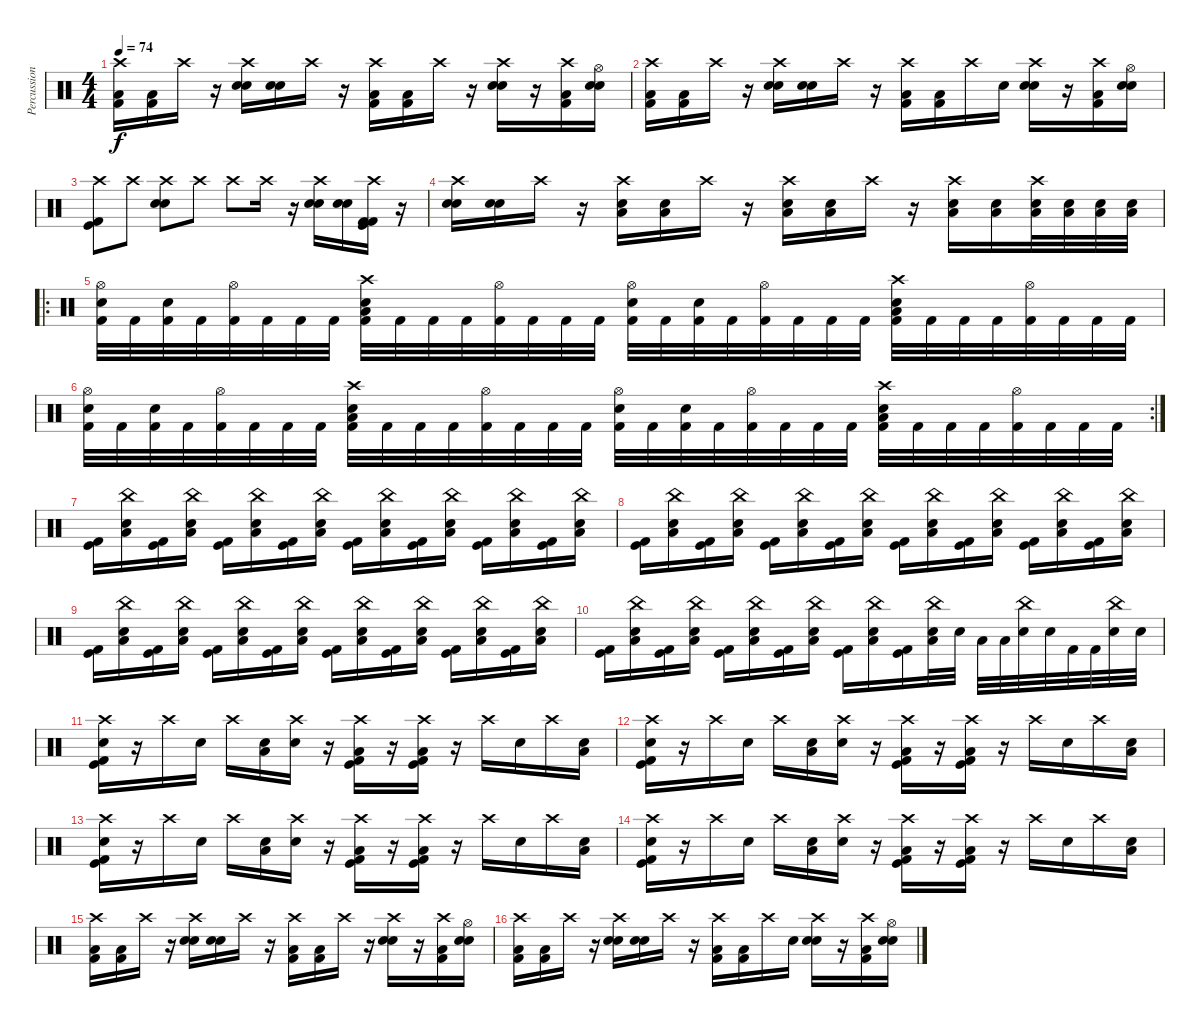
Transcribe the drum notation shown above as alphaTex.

\track ("Percussions" "Percussion") {instrument percussion}
\staff {score}
\articulation defaults
\ts (4 4)
\tempo 74
\clef neutral
\ks c
("Crash high (hit)" "Low Tom (hit)" "Kick (hit) 2").16{dy f} ("Low Tom (hit)" "Kick (hit) 2").16 "Crash high (hit)".16 r.16 ("Crash high (hit)" "Snare (hit) 2" "Electric Snare (hit)").16 ("Snare (hit) 2" "Electric Snare (hit)").16 "Crash high (hit)".16 r.16 ("Crash high (hit)" "Low Tom (hit)" "Kick (hit) 2").16 ("Low Tom (hit)" "Kick (hit) 2").16 "Crash high (hit)".16 r.16 ("Crash high (hit)" "Snare (hit) 2" "Electric Snare (hit)").16 r.16 ("Crash high (hit)" "Low Tom (hit)" "Kick (hit) 2").16 ("Hi-Hat (open)" "Electric Snare (hit)" "Snare (hit) 2").16 |
("Crash high (hit)" "Low Tom (hit)" "Kick (hit) 2").16 ("Low Tom (hit)" "Kick (hit) 2").16 "Crash high (hit)".16 r.16 ("Crash high (hit)" "Snare (hit) 2" "Electric Snare (hit)").16 ("Snare (hit) 2" "Electric Snare (hit)").16 "Crash high (hit)".16 r.16 ("Crash high (hit)" "Low Tom (hit)" "Kick (hit) 2").16 ("Low Tom (hit)" "Kick (hit) 2").16 "Crash high (hit)".16 "Electric Snare (hit)".16 ("Crash high (hit)" "Snare (hit) 2" "Electric Snare (hit)").16 r.16 ("Crash high (hit)" "Low Tom (hit)" "Kick (hit) 2").16 ("Hi-Hat (open)" "Electric Snare (hit)" "Snare (hit) 2").16 |
("Crash high (hit)" "Kick (hit)" "Kick (hit) 2").8 "Crash high (hit)".8 ("Crash high (hit)" "Snare (hit) 2" "Electric Snare (hit)").8 "Crash high (hit)".8 "Crash high (hit)".8 "Crash high (hit)".16 r.16 ("Crash high (hit)" "Electric Snare (hit)" "Snare (hit) 2").16 ("Electric Snare (hit)" "Snare (hit) 2").16 ("Crash high (hit)" "Kick (hit)" "Kick (hit) 2" "Kick (hit) 2").16 r.16 |
("Crash high (hit)" "Snare (hit) 2" "Electric Snare (hit)").16 ("Snare (hit) 2" "Electric Snare (hit)").16 "Crash high (hit)".16 r.16 ("Crash high (hit)" "Electric Snare (hit)" "Low Tom (hit)").16 ("Electric Snare (hit)" "Low Tom (hit)").16 "Crash high (hit)".16 r.16 ("Crash high (hit)" "Electric Snare (hit)" "Low Tom (hit)").16 ("Electric Snare (hit)" "Low Tom (hit)").16 "Crash high (hit)".16 r.16 ("Crash high (hit)" "Electric Snare (hit)" "Low Tom (hit)").16 ("Electric Snare (hit)" "Low Tom (hit)").16 ("Crash high (hit)" "Electric Snare (hit)" "Low Tom (hit)").32 ("Electric Snare (hit)" "Low Tom (hit)").32 ("Electric Snare (hit)" "Low Tom (hit)").32 ("Electric Snare (hit)" "Low Tom (hit)").32 |
\ro
("Hi-Hat (open)" "Snare (hit) 2" "Kick (hit) 2").32 "Kick (hit) 2".32 ("Snare (hit) 2" "Kick (hit) 2").32 "Kick (hit) 2".32 ("Hi-Hat (open)" "Kick (hit) 2").32 "Kick (hit) 2".32 "Kick (hit) 2".32 "Kick (hit) 2".32 ("Crash high (hit)" "Electric Snare (hit)" "Low Tom (hit)" "Kick (hit) 2").32 "Kick (hit) 2".32 "Kick (hit) 2".32 "Kick (hit) 2".32 ("Hi-Hat (open)" "Kick (hit) 2").32 "Kick (hit) 2".32 "Kick (hit) 2".32 "Kick (hit) 2".32 ("Hi-Hat (open)" "Snare (hit) 2" "Kick (hit) 2").32 "Kick (hit) 2".32 ("Snare (hit) 2" "Kick (hit) 2").32 "Kick (hit) 2".32 ("Hi-Hat (open)" "Kick (hit) 2").32 "Kick (hit) 2".32 "Kick (hit) 2".32 "Kick (hit) 2".32 ("Crash high (hit)" "Electric Snare (hit)" "Low Tom (hit)" "Kick (hit) 2").32 "Kick (hit) 2".32 "Kick (hit) 2".32 "Kick (hit) 2".32 ("Hi-Hat (open)" "Kick (hit) 2").32 "Kick (hit) 2".32 "Kick (hit) 2".32 "Kick (hit) 2".32 |
\rc 2
("Hi-Hat (open)" "Snare (hit) 2" "Kick (hit) 2").32 "Kick (hit) 2".32 ("Snare (hit) 2" "Kick (hit) 2").32 "Kick (hit) 2".32 ("Hi-Hat (open)" "Kick (hit) 2").32 "Kick (hit) 2".32 "Kick (hit) 2".32 "Kick (hit) 2".32 ("Crash high (hit)" "Electric Snare (hit)" "Low Tom (hit)" "Kick (hit) 2").32 "Kick (hit) 2".32 "Kick (hit) 2".32 "Kick (hit) 2".32 ("Hi-Hat (open)" "Kick (hit) 2").32 "Kick (hit) 2".32 "Kick (hit) 2".32 "Kick (hit) 2".32 ("Hi-Hat (open)" "Snare (hit) 2" "Kick (hit) 2").32 "Kick (hit) 2".32 ("Snare (hit) 2" "Kick (hit) 2").32 "Kick (hit) 2".32 ("Hi-Hat (open)" "Kick (hit) 2").32 "Kick (hit) 2".32 "Kick (hit) 2".32 "Kick (hit) 2".32 ("Crash high (hit)" "Electric Snare (hit)" "Low Tom (hit)" "Kick (hit) 2").32 "Kick (hit) 2".32 "Kick (hit) 2".32 "Kick (hit) 2".32 ("Hi-Hat (open)" "Kick (hit) 2").32 "Kick (hit) 2".32 "Kick (hit) 2".32 "Kick (hit) 2".32 |
("Kick (hit)" "Kick (hit) 2").16 ("Low Tom (hit)" "China (hit)" "Electric Snare (hit)").16 ("Kick (hit)" "Kick (hit) 2").16 ("Low Tom (hit)" "China (hit)" "Electric Snare (hit)").16 ("Kick (hit)" "Kick (hit) 2").16 ("Low Tom (hit)" "China (hit)" "Electric Snare (hit)").16 ("Kick (hit)" "Kick (hit) 2").16 ("Low Tom (hit)" "China (hit)" "Electric Snare (hit)").16 ("Kick (hit)" "Kick (hit) 2").16 ("Low Tom (hit)" "China (hit)" "Electric Snare (hit)").16 ("Kick (hit)" "Kick (hit) 2").16 ("Low Tom (hit)" "China (hit)" "Electric Snare (hit)").16 ("Kick (hit)" "Kick (hit) 2").16 ("Low Tom (hit)" "China (hit)" "Electric Snare (hit)").16 ("Kick (hit)" "Kick (hit) 2").16 ("Low Tom (hit)" "China (hit)" "Electric Snare (hit)").16 |
("Kick (hit)" "Kick (hit) 2").16 ("Low Tom (hit)" "China (hit)" "Electric Snare (hit)").16 ("Kick (hit)" "Kick (hit) 2").16 ("Low Tom (hit)" "China (hit)" "Electric Snare (hit)").16 ("Kick (hit)" "Kick (hit) 2").16 ("Low Tom (hit)" "China (hit)" "Electric Snare (hit)").16 ("Kick (hit)" "Kick (hit) 2").16 ("Low Tom (hit)" "China (hit)" "Electric Snare (hit)").16 ("Kick (hit)" "Kick (hit) 2").16 ("Low Tom (hit)" "China (hit)" "Electric Snare (hit)").16 ("Kick (hit)" "Kick (hit) 2").16 ("Low Tom (hit)" "China (hit)" "Electric Snare (hit)").16 ("Kick (hit)" "Kick (hit) 2").16 ("Low Tom (hit)" "China (hit)" "Electric Snare (hit)").16 ("Kick (hit)" "Kick (hit) 2").16 ("Low Tom (hit)" "China (hit)" "Electric Snare (hit)").16 |
("Kick (hit)" "Kick (hit) 2").16 ("Low Tom (hit)" "China (hit)" "Electric Snare (hit)").16 ("Kick (hit)" "Kick (hit) 2").16 ("Low Tom (hit)" "China (hit)" "Electric Snare (hit)").16 ("Kick (hit)" "Kick (hit) 2").16 ("Low Tom (hit)" "China (hit)" "Electric Snare (hit)").16 ("Kick (hit)" "Kick (hit) 2").16 ("Low Tom (hit)" "China (hit)" "Electric Snare (hit)").16 ("Kick (hit)" "Kick (hit) 2").16 ("Low Tom (hit)" "China (hit)" "Electric Snare (hit)").16 ("Kick (hit)" "Kick (hit) 2").16 ("Low Tom (hit)" "China (hit)" "Electric Snare (hit)").16 ("Kick (hit)" "Kick (hit) 2").16 ("Low Tom (hit)" "China (hit)" "Electric Snare (hit)").16 ("Kick (hit)" "Kick (hit) 2").16 ("Low Tom (hit)" "China (hit)" "Electric Snare (hit)").16 |
("Kick (hit)" "Kick (hit) 2").16 ("Low Tom (hit)" "China (hit)" "Electric Snare (hit)").16 ("Kick (hit)" "Kick (hit) 2").16 ("Low Tom (hit)" "China (hit)" "Electric Snare (hit)").16 ("Kick (hit)" "Kick (hit) 2").16 ("Low Tom (hit)" "China (hit)" "Electric Snare (hit)").16 ("Kick (hit)" "Kick (hit) 2").16 ("Low Tom (hit)" "China (hit)" "Electric Snare (hit)").16 ("Kick (hit)" "Kick (hit) 2").16 ("Low Tom (hit)" "China (hit)" "Electric Snare (hit)").16 ("Kick (hit)" "Kick (hit) 2").16 ("Low Tom (hit)" "China (hit)" "Electric Snare (hit)").32 "Electric Snare (hit)".32 "Low Tom (hit)".32 "Low Tom (hit)".32 ("China (hit)" "Snare (hit) 2").32 "Snare (hit) 2".32 "Kick (hit) 2".32 "Kick (hit) 2".32 ("China (hit)" "Electric Snare (hit)").32 "Electric Snare (hit)".32 |
("Crash high (hit)" "Snare (hit) 2" "Kick (hit) 2" "Kick (hit)").16 r.16 "Crash high (hit)".16 "Electric Snare (hit)".16 "Crash high (hit)".16 ("Low Tom (hit)" "Snare (hit) 2").16 ("Crash high (hit)" "Electric Snare (hit)").16 r.16 ("Crash high (hit)" "Kick (hit)" "Low Tom (hit)" "Kick (hit) 2").16 r.16 ("Crash high (hit)" "Kick (hit)" "Low Tom (hit)" "Kick (hit) 2").16 r.16 "Crash high (hit)".16 "Electric Snare (hit)".16 "Crash high (hit)".16 ("Low Tom (hit)" "Snare (hit) 2").16 |
("Crash high (hit)" "Snare (hit) 2" "Kick (hit) 2" "Kick (hit)").16 r.16 "Crash high (hit)".16 "Electric Snare (hit)".16 "Crash high (hit)".16 ("Low Tom (hit)" "Snare (hit) 2").16 ("Crash high (hit)" "Electric Snare (hit)").16 r.16 ("Crash high (hit)" "Kick (hit)" "Low Tom (hit)" "Kick (hit) 2").16 r.16 ("Crash high (hit)" "Kick (hit)" "Low Tom (hit)" "Kick (hit) 2").16 r.16 "Crash high (hit)".16 "Electric Snare (hit)".16 "Crash high (hit)".16 ("Low Tom (hit)" "Snare (hit) 2").16 |
("Crash high (hit)" "Snare (hit) 2" "Kick (hit) 2" "Kick (hit)").16 r.16 "Crash high (hit)".16 "Electric Snare (hit)".16 "Crash high (hit)".16 ("Low Tom (hit)" "Snare (hit) 2").16 ("Crash high (hit)" "Electric Snare (hit)").16 r.16 ("Crash high (hit)" "Kick (hit)" "Low Tom (hit)" "Kick (hit) 2").16 r.16 ("Crash high (hit)" "Kick (hit)" "Low Tom (hit)" "Kick (hit) 2").16 r.16 "Crash high (hit)".16 "Electric Snare (hit)".16 "Crash high (hit)".16 ("Low Tom (hit)" "Snare (hit) 2").16 |
("Crash high (hit)" "Snare (hit) 2" "Kick (hit) 2" "Kick (hit)").16 r.16 "Crash high (hit)".16 "Electric Snare (hit)".16 "Crash high (hit)".16 ("Low Tom (hit)" "Snare (hit) 2").16 ("Crash high (hit)" "Electric Snare (hit)").16 r.16 ("Crash high (hit)" "Kick (hit)" "Low Tom (hit)" "Kick (hit) 2").16 r.16 ("Crash high (hit)" "Kick (hit)" "Low Tom (hit)" "Kick (hit) 2").16 r.16 "Crash high (hit)".16 "Electric Snare (hit)".16 "Crash high (hit)".16 ("Low Tom (hit)" "Snare (hit) 2").16 |
("Crash high (hit)" "Low Tom (hit)" "Kick (hit) 2").16 ("Low Tom (hit)" "Kick (hit) 2").16 "Crash high (hit)".16 r.16 ("Crash high (hit)" "Snare (hit) 2" "Electric Snare (hit)").16 ("Snare (hit) 2" "Electric Snare (hit)").16 "Crash high (hit)".16 r.16 ("Crash high (hit)" "Low Tom (hit)" "Kick (hit) 2").16 ("Low Tom (hit)" "Kick (hit) 2").16 "Crash high (hit)".16 r.16 ("Crash high (hit)" "Snare (hit) 2" "Electric Snare (hit)").16 r.16 ("Crash high (hit)" "Low Tom (hit)" "Kick (hit) 2").16 ("Hi-Hat (open)" "Electric Snare (hit)" "Snare (hit) 2").16 |
("Crash high (hit)" "Low Tom (hit)" "Kick (hit) 2").16 ("Low Tom (hit)" "Kick (hit) 2").16 "Crash high (hit)".16 r.16 ("Crash high (hit)" "Snare (hit) 2" "Electric Snare (hit)").16 ("Snare (hit) 2" "Electric Snare (hit)").16 "Crash high (hit)".16 r.16 ("Crash high (hit)" "Low Tom (hit)" "Kick (hit) 2").16 ("Low Tom (hit)" "Kick (hit) 2").16 "Crash high (hit)".16 "Electric Snare (hit)".16 ("Crash high (hit)" "Snare (hit) 2" "Electric Snare (hit)").16 r.16 ("Crash high (hit)" "Low Tom (hit)" "Kick (hit) 2").16 ("Hi-Hat (open)" "Electric Snare (hit)" "Snare (hit) 2").16
